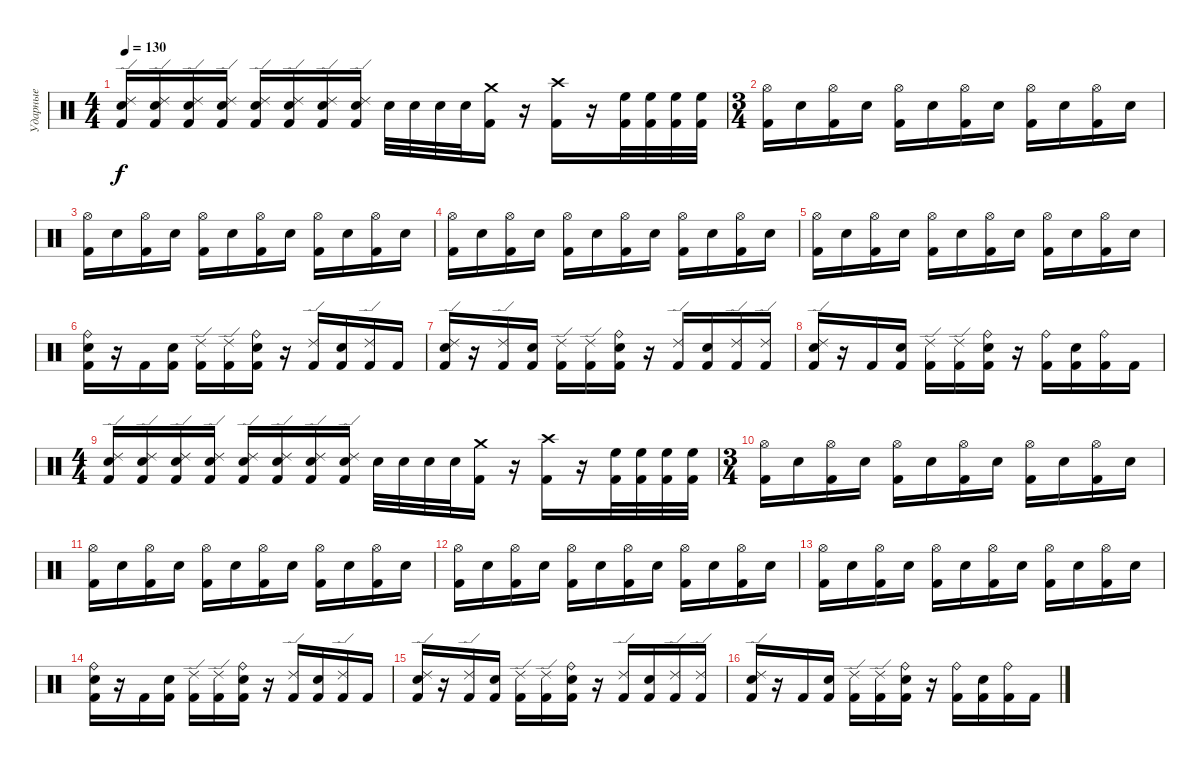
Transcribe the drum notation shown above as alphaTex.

\track ("Ударные" "Ударные") {instrument percussion}
\staff {score}
\articulation defaults
\ts (4 4)
\tempo 130
\clef neutral
\ks c
("Ride (edge) 2" "Snare (hit) 2" "Kick (hit) 2").16{dy f} ("Ride (edge) 2" "Snare (hit) 2" "Kick (hit) 2").16 ("Ride (edge) 2" "Snare (hit) 2" "Kick (hit) 2").16 ("Ride (edge) 2" "Snare (hit) 2" "Kick (hit) 2").16 ("Ride (edge) 2" "Snare (hit) 2" "Kick (hit) 2").16 ("Ride (edge) 2" "Snare (hit) 2" "Kick (hit) 2").16 ("Ride (edge) 2" "Snare (hit) 2" "Kick (hit) 2").16 ("Ride (edge) 2" "Snare (hit) 2" "Kick (hit) 2").16 "Snare (hit) 2".32 "Snare (hit) 2".32 "Snare (hit) 2".32 "Snare (hit) 2".32 ("Crash medium (hit)" "Kick (hit) 2").16 r.16 ("Crash high (hit)" "Kick (hit) 2").16 r.16 ("High Floor Tom (hit)" "Kick (hit) 2").32 ("High Floor Tom (hit)" "Kick (hit) 2").32 ("High Floor Tom (hit)" "Kick (hit) 2").32 ("High Floor Tom (hit)" "Kick (hit) 2").32 |
\ts (3 4)
("Hi-Hat (open)" "Kick (hit) 2").16 "Snare (hit) 2".16 ("Hi-Hat (open)" "Kick (hit) 2").16 "Snare (hit) 2".16 ("Hi-Hat (open)" "Kick (hit) 2").16 "Snare (hit) 2".16 ("Hi-Hat (open)" "Kick (hit) 2").16 "Snare (hit) 2".16 ("Hi-Hat (open)" "Kick (hit) 2").16 "Snare (hit) 2".16 ("Hi-Hat (open)" "Kick (hit) 2").16 "Snare (hit) 2".16 |
("Hi-Hat (open)" "Kick (hit) 2").16 "Snare (hit) 2".16 ("Hi-Hat (open)" "Kick (hit) 2").16 "Snare (hit) 2".16 ("Hi-Hat (open)" "Kick (hit) 2").16 "Snare (hit) 2".16 ("Hi-Hat (open)" "Kick (hit) 2").16 "Snare (hit) 2".16 ("Hi-Hat (open)" "Kick (hit) 2").16 "Snare (hit) 2".16 ("Hi-Hat (open)" "Kick (hit) 2").16 "Snare (hit) 2".16 |
("Hi-Hat (open)" "Kick (hit) 2").16 "Snare (hit) 2".16 ("Hi-Hat (open)" "Kick (hit) 2").16 "Snare (hit) 2".16 ("Hi-Hat (open)" "Kick (hit) 2").16 "Snare (hit) 2".16 ("Hi-Hat (open)" "Kick (hit) 2").16 "Snare (hit) 2".16 ("Hi-Hat (open)" "Kick (hit) 2").16 "Snare (hit) 2".16 ("Hi-Hat (open)" "Kick (hit) 2").16 "Snare (hit) 2".16 |
("Hi-Hat (open)" "Kick (hit) 2").16 "Snare (hit) 2".16 ("Hi-Hat (open)" "Kick (hit) 2").16 "Snare (hit) 2".16 ("Hi-Hat (open)" "Kick (hit) 2").16 "Snare (hit) 2".16 ("Hi-Hat (open)" "Kick (hit) 2").16 "Snare (hit) 2".16 ("Hi-Hat (open)" "Kick (hit) 2").16 "Snare (hit) 2".16 ("Hi-Hat (open)" "Kick (hit) 2").16 "Snare (hit) 2".16 |
("Ride (bell)" "Snare (hit) 2" "Kick (hit) 2").16 r.16 "Kick (hit) 2".16 ("Snare (hit) 2" "Kick (hit) 2").16 ("Ride (edge) 2" "Kick (hit) 2").16 ("Ride (edge) 2" "Kick (hit) 2").16 ("Ride (bell)" "Snare (hit) 2" "Kick (hit) 2").16 r.16 ("Ride (edge) 2" "Kick (hit) 2").16 ("Snare (hit) 2" "Kick (hit) 2").16 ("Ride (edge) 2" "Kick (hit) 2").16 "Kick (hit) 2".16 |
("Ride (edge) 2" "Snare (hit) 2" "Kick (hit) 2").16 r.16 ("Ride (edge) 2" "Kick (hit) 2").16 ("Snare (hit) 2" "Kick (hit) 2").16 ("Ride (edge) 2" "Kick (hit) 2").16 ("Ride (edge) 2" "Kick (hit) 2").16 ("Ride (bell)" "Snare (hit) 2" "Kick (hit) 2").16 r.16 ("Ride (edge) 2" "Kick (hit) 2").16 ("Snare (hit) 2" "Kick (hit) 2").16 ("Ride (edge) 2" "Kick (hit) 2").16 ("Ride (edge) 2" "Kick (hit) 2").16 |
("Ride (edge) 2" "Snare (hit) 2" "Kick (hit) 2").16 r.16 "Kick (hit) 2".16 ("Snare (hit) 2" "Kick (hit) 2").16 ("Ride (edge) 2" "Kick (hit) 2").16 ("Ride (edge) 2" "Kick (hit) 2").16 ("Ride (bell)" "Snare (hit) 2" "Kick (hit) 2").16 r.16 ("Ride (bell)" "Kick (hit) 2").16 ("Snare (hit) 2" "Kick (hit) 2").16 ("Ride (bell)" "Kick (hit) 2").16 "Kick (hit) 2".16 |
\ts (4 4)
("Ride (edge) 2" "Snare (hit) 2" "Kick (hit) 2").16 ("Ride (edge) 2" "Snare (hit) 2" "Kick (hit) 2").16 ("Ride (edge) 2" "Snare (hit) 2" "Kick (hit) 2").16 ("Ride (edge) 2" "Snare (hit) 2" "Kick (hit) 2").16 ("Ride (edge) 2" "Snare (hit) 2" "Kick (hit) 2").16 ("Ride (edge) 2" "Snare (hit) 2" "Kick (hit) 2").16 ("Ride (edge) 2" "Snare (hit) 2" "Kick (hit) 2").16 ("Ride (edge) 2" "Snare (hit) 2" "Kick (hit) 2").16 "Snare (hit) 2".32 "Snare (hit) 2".32 "Snare (hit) 2".32 "Snare (hit) 2".32 ("Crash medium (hit)" "Kick (hit) 2").16 r.16 ("Crash high (hit)" "Kick (hit) 2").16 r.16 ("High Floor Tom (hit)" "Kick (hit) 2").32 ("High Floor Tom (hit)" "Kick (hit) 2").32 ("High Floor Tom (hit)" "Kick (hit) 2").32 ("High Floor Tom (hit)" "Kick (hit) 2").32 |
\ts (3 4)
("Hi-Hat (open)" "Kick (hit) 2").16 "Snare (hit) 2".16 ("Hi-Hat (open)" "Kick (hit) 2").16 "Snare (hit) 2".16 ("Hi-Hat (open)" "Kick (hit) 2").16 "Snare (hit) 2".16 ("Hi-Hat (open)" "Kick (hit) 2").16 "Snare (hit) 2".16 ("Hi-Hat (open)" "Kick (hit) 2").16 "Snare (hit) 2".16 ("Hi-Hat (open)" "Kick (hit) 2").16 "Snare (hit) 2".16 |
("Hi-Hat (open)" "Kick (hit) 2").16 "Snare (hit) 2".16 ("Hi-Hat (open)" "Kick (hit) 2").16 "Snare (hit) 2".16 ("Hi-Hat (open)" "Kick (hit) 2").16 "Snare (hit) 2".16 ("Hi-Hat (open)" "Kick (hit) 2").16 "Snare (hit) 2".16 ("Hi-Hat (open)" "Kick (hit) 2").16 "Snare (hit) 2".16 ("Hi-Hat (open)" "Kick (hit) 2").16 "Snare (hit) 2".16 |
("Hi-Hat (open)" "Kick (hit) 2").16 "Snare (hit) 2".16 ("Hi-Hat (open)" "Kick (hit) 2").16 "Snare (hit) 2".16 ("Hi-Hat (open)" "Kick (hit) 2").16 "Snare (hit) 2".16 ("Hi-Hat (open)" "Kick (hit) 2").16 "Snare (hit) 2".16 ("Hi-Hat (open)" "Kick (hit) 2").16 "Snare (hit) 2".16 ("Hi-Hat (open)" "Kick (hit) 2").16 "Snare (hit) 2".16 |
("Hi-Hat (open)" "Kick (hit) 2").16 "Snare (hit) 2".16 ("Hi-Hat (open)" "Kick (hit) 2").16 "Snare (hit) 2".16 ("Hi-Hat (open)" "Kick (hit) 2").16 "Snare (hit) 2".16 ("Hi-Hat (open)" "Kick (hit) 2").16 "Snare (hit) 2".16 ("Hi-Hat (open)" "Kick (hit) 2").16 "Snare (hit) 2".16 ("Hi-Hat (open)" "Kick (hit) 2").16 "Snare (hit) 2".16 |
("Ride (bell)" "Snare (hit) 2" "Kick (hit) 2").16 r.16 "Kick (hit) 2".16 ("Snare (hit) 2" "Kick (hit) 2").16 ("Ride (edge) 2" "Kick (hit) 2").16 ("Ride (edge) 2" "Kick (hit) 2").16 ("Ride (bell)" "Snare (hit) 2" "Kick (hit) 2").16 r.16 ("Ride (edge) 2" "Kick (hit) 2").16 ("Snare (hit) 2" "Kick (hit) 2").16 ("Ride (edge) 2" "Kick (hit) 2").16 "Kick (hit) 2".16 |
("Ride (edge) 2" "Snare (hit) 2" "Kick (hit) 2").16 r.16 ("Ride (edge) 2" "Kick (hit) 2").16 ("Snare (hit) 2" "Kick (hit) 2").16 ("Ride (edge) 2" "Kick (hit) 2").16 ("Ride (edge) 2" "Kick (hit) 2").16 ("Ride (bell)" "Snare (hit) 2" "Kick (hit) 2").16 r.16 ("Ride (edge) 2" "Kick (hit) 2").16 ("Snare (hit) 2" "Kick (hit) 2").16 ("Ride (edge) 2" "Kick (hit) 2").16 ("Ride (edge) 2" "Kick (hit) 2").16 |
("Ride (edge) 2" "Snare (hit) 2" "Kick (hit) 2").16 r.16 "Kick (hit) 2".16 ("Snare (hit) 2" "Kick (hit) 2").16 ("Ride (edge) 2" "Kick (hit) 2").16 ("Ride (edge) 2" "Kick (hit) 2").16 ("Ride (bell)" "Snare (hit) 2" "Kick (hit) 2").16 r.16 ("Ride (bell)" "Kick (hit) 2").16 ("Snare (hit) 2" "Kick (hit) 2").16 ("Ride (bell)" "Kick (hit) 2").16 "Kick (hit) 2".16
